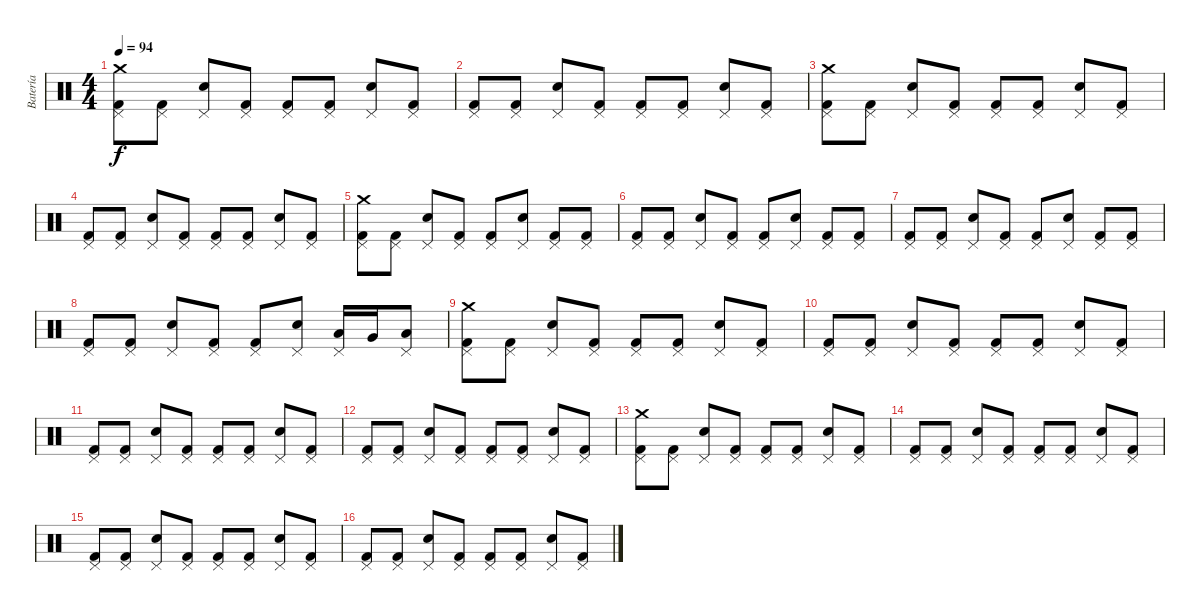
\track ("Batería" "Batería") {instrument percussion}
\staff {score}
\articulation defaults
\ts (4 4)
\tempo 94
\clef neutral
\ks c
("Crash medium (hit)" "Pedal Hi-Hat (hit)" "Kick (hit) 2").8{dy f} ("Pedal Hi-Hat (hit)" "Kick (hit) 2").8 ("Pedal Hi-Hat (hit)" "Snare (hit) 2").8 ("Pedal Hi-Hat (hit)" "Kick (hit) 2").8 ("Pedal Hi-Hat (hit)" "Kick (hit) 2").8 ("Pedal Hi-Hat (hit)" "Kick (hit) 2").8 ("Pedal Hi-Hat (hit)" "Snare (hit) 2").8 ("Pedal Hi-Hat (hit)" "Kick (hit) 2").8 |
("Pedal Hi-Hat (hit)" "Kick (hit) 2").8 ("Pedal Hi-Hat (hit)" "Kick (hit) 2").8 ("Pedal Hi-Hat (hit)" "Snare (hit) 2").8 ("Kick (hit) 2" "Pedal Hi-Hat (hit)").8 ("Kick (hit) 2" "Pedal Hi-Hat (hit)").8 ("Kick (hit) 2" "Pedal Hi-Hat (hit)").8 ("Snare (hit) 2" "Pedal Hi-Hat (hit)").8 ("Kick (hit) 2" "Pedal Hi-Hat (hit)").8 |
("Crash medium (hit)" "Kick (hit) 2" "Pedal Hi-Hat (hit)").8 ("Kick (hit) 2" "Pedal Hi-Hat (hit)").8 ("Snare (hit) 2" "Pedal Hi-Hat (hit)").8 ("Kick (hit) 2" "Pedal Hi-Hat (hit)").8 ("Kick (hit) 2" "Pedal Hi-Hat (hit)").8 ("Kick (hit) 2" "Pedal Hi-Hat (hit)").8 ("Snare (hit) 2" "Pedal Hi-Hat (hit)").8 ("Kick (hit) 2" "Pedal Hi-Hat (hit)").8 |
("Kick (hit) 2" "Pedal Hi-Hat (hit)").8 ("Kick (hit) 2" "Pedal Hi-Hat (hit)").8 ("Snare (hit) 2" "Pedal Hi-Hat (hit)").8 ("Kick (hit) 2" "Pedal Hi-Hat (hit)").8 ("Kick (hit) 2" "Pedal Hi-Hat (hit)").8 ("Kick (hit) 2" "Pedal Hi-Hat (hit)").8 ("Snare (hit) 2" "Pedal Hi-Hat (hit)").8 ("Kick (hit) 2" "Pedal Hi-Hat (hit)").8 |
("Crash medium (hit)" "Pedal Hi-Hat (hit)" "Kick (hit) 2").8 ("Pedal Hi-Hat (hit)" "Kick (hit) 2").8 ("Pedal Hi-Hat (hit)" "Snare (hit) 2").8 ("Pedal Hi-Hat (hit)" "Kick (hit) 2").8 ("Pedal Hi-Hat (hit)" "Kick (hit) 2").8 ("Pedal Hi-Hat (hit)" "Snare (hit) 2").8 ("Pedal Hi-Hat (hit)" "Kick (hit) 2").8 ("Pedal Hi-Hat (hit)" "Kick (hit) 2").8 |
("Pedal Hi-Hat (hit)" "Kick (hit) 2").8 ("Pedal Hi-Hat (hit)" "Kick (hit) 2").8 ("Pedal Hi-Hat (hit)" "Snare (hit) 2").8 ("Kick (hit) 2" "Pedal Hi-Hat (hit)").8 ("Kick (hit) 2" "Pedal Hi-Hat (hit)").8 ("Snare (hit) 2" "Pedal Hi-Hat (hit)").8 ("Kick (hit) 2" "Pedal Hi-Hat (hit)").8 ("Kick (hit) 2" "Pedal Hi-Hat (hit)").8 |
("Kick (hit) 2" "Pedal Hi-Hat (hit)").8 ("Kick (hit) 2" "Pedal Hi-Hat (hit)").8 ("Snare (hit) 2" "Pedal Hi-Hat (hit)").8 ("Kick (hit) 2" "Pedal Hi-Hat (hit)").8 ("Kick (hit) 2" "Pedal Hi-Hat (hit)").8 ("Snare (hit) 2" "Pedal Hi-Hat (hit)").8 ("Kick (hit) 2" "Pedal Hi-Hat (hit)").8 ("Kick (hit) 2" "Pedal Hi-Hat (hit)").8 |
("Kick (hit) 2" "Pedal Hi-Hat (hit)").8 ("Kick (hit) 2" "Pedal Hi-Hat (hit)").8 ("Snare (hit) 2" "Pedal Hi-Hat (hit)").8 ("Kick (hit) 2" "Pedal Hi-Hat (hit)").8 ("Kick (hit) 2" "Pedal Hi-Hat (hit)").8 ("Snare (hit) 2" "Pedal Hi-Hat (hit)").8 ("Low Tom (hit)" "Pedal Hi-Hat (hit)").16 "Very Low Tom (hit)".16 ("Low Floor Tom (hit)" "Pedal Hi-Hat (hit)").8 |
("Crash medium (hit)" "Pedal Hi-Hat (hit)" "Kick (hit) 2").8 ("Pedal Hi-Hat (hit)" "Kick (hit) 2").8 ("Pedal Hi-Hat (hit)" "Snare (hit) 2").8 ("Pedal Hi-Hat (hit)" "Kick (hit) 2").8 ("Pedal Hi-Hat (hit)" "Kick (hit) 2").8 ("Pedal Hi-Hat (hit)" "Kick (hit) 2").8 ("Pedal Hi-Hat (hit)" "Snare (hit) 2").8 ("Pedal Hi-Hat (hit)" "Kick (hit) 2").8 |
("Pedal Hi-Hat (hit)" "Kick (hit) 2").8 ("Pedal Hi-Hat (hit)" "Kick (hit) 2").8 ("Pedal Hi-Hat (hit)" "Snare (hit) 2").8 ("Kick (hit) 2" "Pedal Hi-Hat (hit)").8 ("Kick (hit) 2" "Pedal Hi-Hat (hit)").8 ("Kick (hit) 2" "Pedal Hi-Hat (hit)").8 ("Snare (hit) 2" "Pedal Hi-Hat (hit)").8 ("Kick (hit) 2" "Pedal Hi-Hat (hit)").8 |
("Kick (hit) 2" "Pedal Hi-Hat (hit)").8 ("Kick (hit) 2" "Pedal Hi-Hat (hit)").8 ("Snare (hit) 2" "Pedal Hi-Hat (hit)").8 ("Kick (hit) 2" "Pedal Hi-Hat (hit)").8 ("Kick (hit) 2" "Pedal Hi-Hat (hit)").8 ("Kick (hit) 2" "Pedal Hi-Hat (hit)").8 ("Snare (hit) 2" "Pedal Hi-Hat (hit)").8 ("Kick (hit) 2" "Pedal Hi-Hat (hit)").8 |
("Kick (hit) 2" "Pedal Hi-Hat (hit)").8 ("Kick (hit) 2" "Pedal Hi-Hat (hit)").8 ("Snare (hit) 2" "Pedal Hi-Hat (hit)").8 ("Kick (hit) 2" "Pedal Hi-Hat (hit)").8 ("Kick (hit) 2" "Pedal Hi-Hat (hit)").8 ("Kick (hit) 2" "Pedal Hi-Hat (hit)").8 ("Snare (hit) 2" "Pedal Hi-Hat (hit)").8 ("Kick (hit) 2" "Pedal Hi-Hat (hit)").8 |
("Pedal Hi-Hat (hit)" "Crash medium (hit)" "Kick (hit) 2").8 ("Pedal Hi-Hat (hit)" "Kick (hit) 2").8 ("Pedal Hi-Hat (hit)" "Snare (hit) 2").8 ("Pedal Hi-Hat (hit)" "Kick (hit) 2").8 ("Pedal Hi-Hat (hit)" "Kick (hit) 2").8 ("Pedal Hi-Hat (hit)" "Kick (hit) 2").8 ("Pedal Hi-Hat (hit)" "Snare (hit) 2").8 ("Kick (hit) 2" "Pedal Hi-Hat (hit)").8 |
("Pedal Hi-Hat (hit)" "Kick (hit) 2").8 ("Pedal Hi-Hat (hit)" "Kick (hit) 2").8 ("Pedal Hi-Hat (hit)" "Snare (hit) 2").8 ("Pedal Hi-Hat (hit)" "Kick (hit) 2").8 ("Pedal Hi-Hat (hit)" "Kick (hit) 2").8 ("Pedal Hi-Hat (hit)" "Kick (hit) 2").8 ("Pedal Hi-Hat (hit)" "Snare (hit) 2").8 ("Kick (hit) 2" "Pedal Hi-Hat (hit)").8 |
("Pedal Hi-Hat (hit)" "Kick (hit) 2").8 ("Pedal Hi-Hat (hit)" "Kick (hit) 2").8 ("Pedal Hi-Hat (hit)" "Snare (hit) 2").8 ("Pedal Hi-Hat (hit)" "Kick (hit) 2").8 ("Pedal Hi-Hat (hit)" "Kick (hit) 2").8 ("Pedal Hi-Hat (hit)" "Kick (hit) 2").8 ("Pedal Hi-Hat (hit)" "Snare (hit) 2").8 ("Kick (hit) 2" "Pedal Hi-Hat (hit)").8 |
("Pedal Hi-Hat (hit)" "Kick (hit) 2").8 ("Pedal Hi-Hat (hit)" "Kick (hit) 2").8 ("Pedal Hi-Hat (hit)" "Snare (hit) 2").8 ("Pedal Hi-Hat (hit)" "Kick (hit) 2").8 ("Pedal Hi-Hat (hit)" "Kick (hit) 2").8 ("Pedal Hi-Hat (hit)" "Kick (hit) 2").8 ("Pedal Hi-Hat (hit)" "Snare (hit) 2").8 ("Kick (hit) 2" "Pedal Hi-Hat (hit)").8
